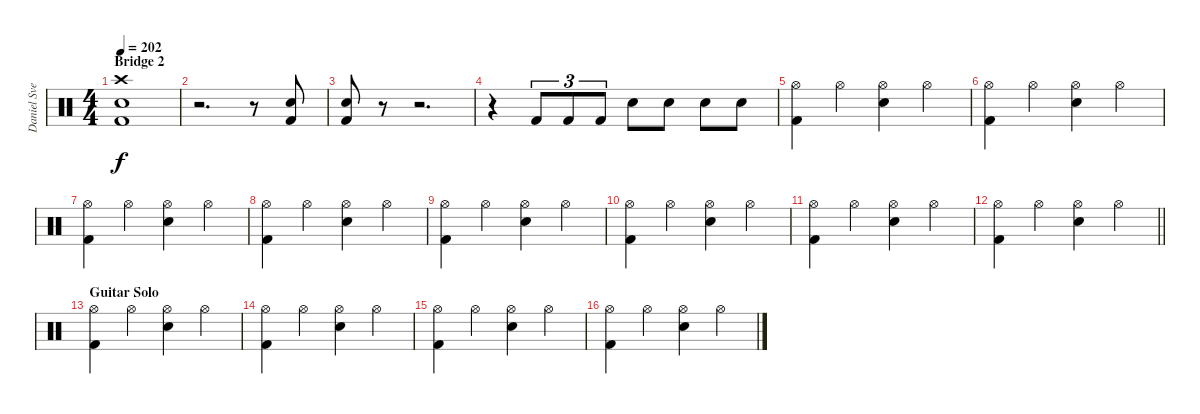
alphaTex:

\track ("Daniel Svensson" "Daniel Sve") {instrument percussion}
\staff {score}
\articulation defaults
\ts (4 4)
\section ("" "Bridge 2")
\tempo 202
\clef neutral
\ks c
("Crash high (hit)" "Electric Snare (hit)" "Kick (hit) 2").1{dy f} |
r.2{d} r.8 ("Electric Snare (hit)" "Kick (hit) 2").8 |
("Electric Snare (hit)" "Kick (hit) 2").8 r.8 r.2{d} |
r.4 "Kick (hit) 2".8{tu (3 2)} "Kick (hit) 2".8{tu (3 2)} "Kick (hit) 2".8{tu (3 2)} "Electric Snare (hit)".8 "Electric Snare (hit)".8 "Electric Snare (hit)".8 "Electric Snare (hit)".8 |
("Hi-Hat (open)" "Kick (hit) 2").4 "Hi-Hat (open)".4 ("Hi-Hat (open)" "Electric Snare (hit)").4 "Hi-Hat (open)".4 |
("Hi-Hat (open)" "Kick (hit) 2").4 "Hi-Hat (open)".4 ("Hi-Hat (open)" "Electric Snare (hit)").4 "Hi-Hat (open)".4 |
("Hi-Hat (open)" "Kick (hit) 2").4 "Hi-Hat (open)".4 ("Hi-Hat (open)" "Electric Snare (hit)").4 "Hi-Hat (open)".4 |
("Hi-Hat (open)" "Kick (hit) 2").4 "Hi-Hat (open)".4 ("Hi-Hat (open)" "Electric Snare (hit)").4 "Hi-Hat (open)".4 |
("Hi-Hat (open)" "Kick (hit) 2").4 "Hi-Hat (open)".4 ("Hi-Hat (open)" "Electric Snare (hit)").4 "Hi-Hat (open)".4 |
("Hi-Hat (open)" "Kick (hit) 2").4 "Hi-Hat (open)".4 ("Hi-Hat (open)" "Electric Snare (hit)").4 "Hi-Hat (open)".4 |
("Hi-Hat (open)" "Kick (hit) 2").4 "Hi-Hat (open)".4 ("Hi-Hat (open)" "Electric Snare (hit)").4 "Hi-Hat (open)".4 |
\barLineRight lightlight
("Hi-Hat (open)" "Kick (hit) 2").4 "Hi-Hat (open)".4 ("Hi-Hat (open)" "Electric Snare (hit)").4 "Hi-Hat (open)".4 |
\section ("" "Guitar Solo")
("Hi-Hat (open)" "Kick (hit) 2").4 "Hi-Hat (open)".4 ("Hi-Hat (open)" "Electric Snare (hit)").4 "Hi-Hat (open)".4 |
("Hi-Hat (open)" "Kick (hit) 2").4 "Hi-Hat (open)".4 ("Hi-Hat (open)" "Electric Snare (hit)").4 "Hi-Hat (open)".4 |
("Hi-Hat (open)" "Kick (hit) 2").4 "Hi-Hat (open)".4 ("Hi-Hat (open)" "Electric Snare (hit)").4 "Hi-Hat (open)".4 |
("Hi-Hat (open)" "Kick (hit) 2").4 "Hi-Hat (open)".4 ("Hi-Hat (open)" "Electric Snare (hit)").4 "Hi-Hat (open)".4
